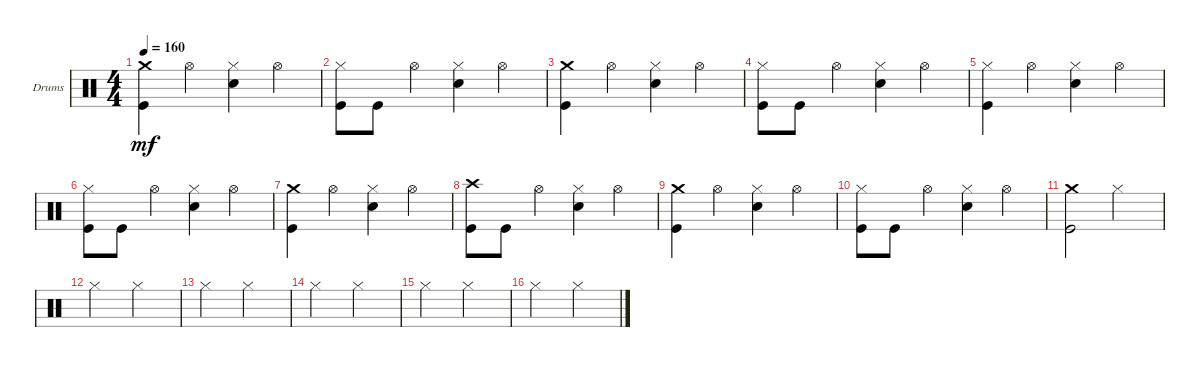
\defaultSystemsLayout 4
\bracketExtendMode groupsimilarinstruments
\firstSystemTrackNameOrientation horizontal
\otherSystemsTrackNameOrientation horizontal
\track ("Drumkit" "Drums") {instrument percussion}
\staff {score}
\articulation defaults
\ts (4 4)
\tempo 160
\clef neutral
\scale
0.333333
\ks c
("Kick (hit)" "Crash medium (hit)").4{dy mf} "Hi-Hat (open)".4 ("Snare (hit) 2" "Hi-Hat (closed)").4 "Hi-Hat (open)".4 |
\scale
0.333333 ("Kick (hit)" "Hi-Hat (closed)").8 "Kick (hit)".8 "Hi-Hat (open)".4 ("Snare (hit) 2" "Hi-Hat (closed)").4 "Hi-Hat (open)".4 |
\scale
0.333333 ("Crash medium (hit)" "Kick (hit)").4 "Hi-Hat (open)".4 ("Snare (hit) 2" "Hi-Hat (closed)").4 "Hi-Hat (open)".4 |
\scale
0.333333 ("Kick (hit)" "Hi-Hat (closed)").8 "Kick (hit)".8 "Hi-Hat (open)".4 ("Snare (hit) 2" "Hi-Hat (closed)").4 "Hi-Hat (open)".4 |
\scale
0.333333 ("Kick (hit)" "Hi-Hat (closed)").4 "Hi-Hat (open)".4 ("Snare (hit) 2" "Hi-Hat (closed)").4 "Hi-Hat (open)".4 |
\scale
0.333333 ("Kick (hit)" "Hi-Hat (closed)").8 "Kick (hit)".8 "Hi-Hat (open)".4 ("Snare (hit) 2" "Hi-Hat (closed)").4 "Hi-Hat (open)".4 |
\scale
0.333333 ("Crash medium (hit)" "Kick (hit)").4 "Hi-Hat (open)".4 ("Snare (hit) 2" "Hi-Hat (closed)").4 "Hi-Hat (open)".4 |
("Kick (hit)" "Crash high (hit)").8 "Kick (hit)".8 "Hi-Hat (open)".4 ("Snare (hit) 2" "Hi-Hat (closed)").4 "Hi-Hat (open)".4 |
("Kick (hit)" "Crash medium (hit)").4 "Hi-Hat (open)".4 ("Snare (hit) 2" "Hi-Hat (closed)").4 "Hi-Hat (open)".4 |
("Kick (hit)" "Hi-Hat (closed)").8 "Kick (hit)".8 "Hi-Hat (open)".4 ("Snare (hit) 2" "Hi-Hat (closed)").4 "Hi-Hat (open)".4 |
("Crash medium (hit)" "Kick (hit)").2 "Hi-Hat (closed)".2 |
"Hi-Hat (closed)".2 "Hi-Hat (closed)".2 |
"Hi-Hat (closed)".2 "Hi-Hat (closed)".2 |
"Hi-Hat (closed)".2 "Hi-Hat (closed)".2 |
"Hi-Hat (closed)".2 "Hi-Hat (closed)".2 |
"Hi-Hat (closed)".2 "Hi-Hat (closed)".2
